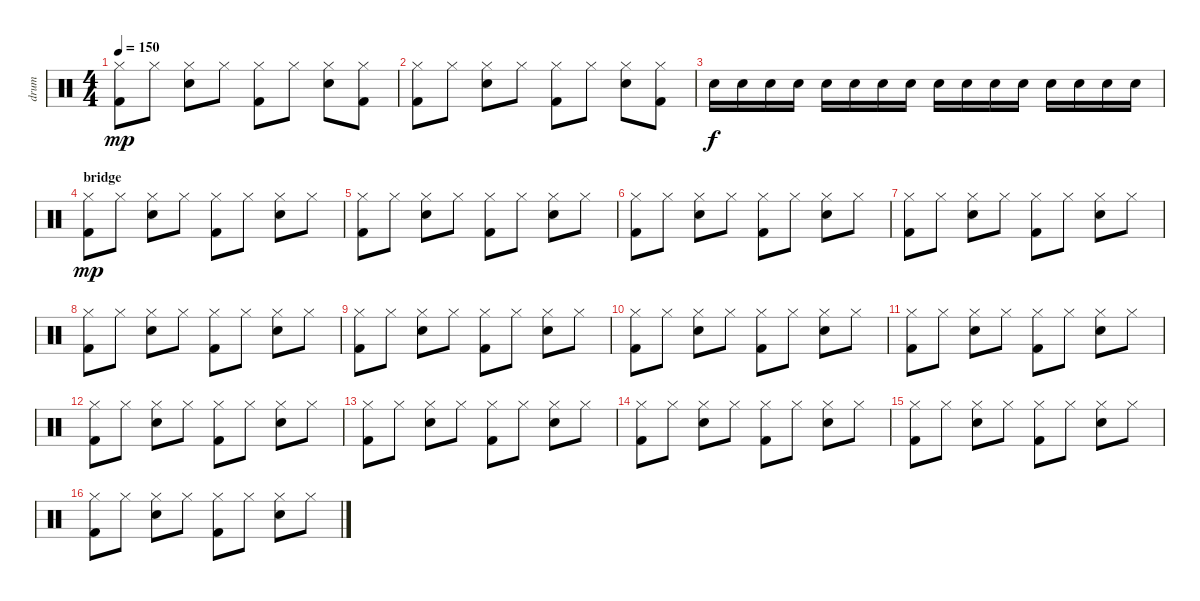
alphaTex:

\track ("drum" "drum") {instrument percussion}
\staff {score}
\articulation defaults
\ts (4 4)
\tempo 150
\clef neutral
\ks c
("Hi-Hat (closed)" "Kick (hit) 2").8{dy mp} "Hi-Hat (closed)".8 ("Hi-Hat (closed)" "Electric Snare (hit)").8 "Hi-Hat (closed)".8 ("Hi-Hat (closed)" "Kick (hit) 2").8 "Hi-Hat (closed)".8 ("Hi-Hat (closed)" "Electric Snare (hit)").8 ("Hi-Hat (closed)" "Kick (hit) 2").8 |
("Hi-Hat (closed)" "Kick (hit) 2").8 "Hi-Hat (closed)".8 ("Hi-Hat (closed)" "Electric Snare (hit)").8 "Hi-Hat (closed)".8 ("Hi-Hat (closed)" "Kick (hit) 2").8 "Hi-Hat (closed)".8 ("Hi-Hat (closed)" "Electric Snare (hit)").8 ("Hi-Hat (closed)" "Kick (hit) 2").8 |
"Electric Snare (hit)".16{dy f} "Electric Snare (hit)".16 "Electric Snare (hit)".16 "Electric Snare (hit)".16 "Electric Snare (hit)".16 "Electric Snare (hit)".16 "Electric Snare (hit)".16 "Electric Snare (hit)".16 "Electric Snare (hit)".16 "Electric Snare (hit)".16 "Electric Snare (hit)".16 "Electric Snare (hit)".16 "Electric Snare (hit)".16 "Electric Snare (hit)".16 "Electric Snare (hit)".16 "Electric Snare (hit)".16 |
\section ("" "bridge")
("Hi-Hat (closed)" "Kick (hit) 2").8{dy mp} "Hi-Hat (closed)".8 ("Hi-Hat (closed)" "Electric Snare (hit)").8 "Hi-Hat (closed)".8 ("Hi-Hat (closed)" "Kick (hit) 2").8 "Hi-Hat (closed)".8 ("Hi-Hat (closed)" "Electric Snare (hit)").8 "Hi-Hat (closed)".8 |
("Hi-Hat (closed)" "Kick (hit) 2").8 "Hi-Hat (closed)".8 ("Hi-Hat (closed)" "Electric Snare (hit)").8 "Hi-Hat (closed)".8 ("Hi-Hat (closed)" "Kick (hit) 2").8 "Hi-Hat (closed)".8 ("Hi-Hat (closed)" "Electric Snare (hit)").8 "Hi-Hat (closed)".8 |
("Hi-Hat (closed)" "Kick (hit) 2").8 "Hi-Hat (closed)".8 ("Hi-Hat (closed)" "Electric Snare (hit)").8 "Hi-Hat (closed)".8 ("Hi-Hat (closed)" "Kick (hit) 2").8 "Hi-Hat (closed)".8 ("Hi-Hat (closed)" "Electric Snare (hit)").8 "Hi-Hat (closed)".8 |
("Hi-Hat (closed)" "Kick (hit) 2").8 "Hi-Hat (closed)".8 ("Hi-Hat (closed)" "Electric Snare (hit)").8 "Hi-Hat (closed)".8 ("Hi-Hat (closed)" "Kick (hit) 2").8 "Hi-Hat (closed)".8 ("Hi-Hat (closed)" "Electric Snare (hit)").8 "Hi-Hat (closed)".8 |
("Hi-Hat (closed)" "Kick (hit) 2").8 "Hi-Hat (closed)".8 ("Hi-Hat (closed)" "Electric Snare (hit)").8 "Hi-Hat (closed)".8 ("Hi-Hat (closed)" "Kick (hit) 2").8 "Hi-Hat (closed)".8 ("Hi-Hat (closed)" "Electric Snare (hit)").8 "Hi-Hat (closed)".8 |
("Hi-Hat (closed)" "Kick (hit) 2").8 "Hi-Hat (closed)".8 ("Hi-Hat (closed)" "Electric Snare (hit)").8 "Hi-Hat (closed)".8 ("Hi-Hat (closed)" "Kick (hit) 2").8 "Hi-Hat (closed)".8 ("Hi-Hat (closed)" "Electric Snare (hit)").8 "Hi-Hat (closed)".8 |
("Hi-Hat (closed)" "Kick (hit) 2").8 "Hi-Hat (closed)".8 ("Hi-Hat (closed)" "Electric Snare (hit)").8 "Hi-Hat (closed)".8 ("Hi-Hat (closed)" "Kick (hit) 2").8 "Hi-Hat (closed)".8 ("Hi-Hat (closed)" "Electric Snare (hit)").8 "Hi-Hat (closed)".8 |
("Hi-Hat (closed)" "Kick (hit) 2").8 "Hi-Hat (closed)".8 ("Hi-Hat (closed)" "Electric Snare (hit)").8 "Hi-Hat (closed)".8 ("Hi-Hat (closed)" "Kick (hit) 2").8 "Hi-Hat (closed)".8 ("Hi-Hat (closed)" "Electric Snare (hit)").8 "Hi-Hat (closed)".8 |
("Hi-Hat (closed)" "Kick (hit) 2").8 "Hi-Hat (closed)".8 ("Hi-Hat (closed)" "Electric Snare (hit)").8 "Hi-Hat (closed)".8 ("Hi-Hat (closed)" "Kick (hit) 2").8 "Hi-Hat (closed)".8 ("Hi-Hat (closed)" "Electric Snare (hit)").8 "Hi-Hat (closed)".8 |
("Hi-Hat (closed)" "Kick (hit) 2").8 "Hi-Hat (closed)".8 ("Hi-Hat (closed)" "Electric Snare (hit)").8 "Hi-Hat (closed)".8 ("Hi-Hat (closed)" "Kick (hit) 2").8 "Hi-Hat (closed)".8 ("Hi-Hat (closed)" "Electric Snare (hit)").8 "Hi-Hat (closed)".8 |
("Hi-Hat (closed)" "Kick (hit) 2").8 "Hi-Hat (closed)".8 ("Hi-Hat (closed)" "Electric Snare (hit)").8 "Hi-Hat (closed)".8 ("Hi-Hat (closed)" "Kick (hit) 2").8 "Hi-Hat (closed)".8 ("Hi-Hat (closed)" "Electric Snare (hit)").8 "Hi-Hat (closed)".8 |
("Hi-Hat (closed)" "Kick (hit) 2").8 "Hi-Hat (closed)".8 ("Hi-Hat (closed)" "Electric Snare (hit)").8 "Hi-Hat (closed)".8 ("Hi-Hat (closed)" "Kick (hit) 2").8 "Hi-Hat (closed)".8 ("Hi-Hat (closed)" "Electric Snare (hit)").8 "Hi-Hat (closed)".8 |
("Hi-Hat (closed)" "Kick (hit) 2").8 "Hi-Hat (closed)".8 ("Hi-Hat (closed)" "Electric Snare (hit)").8 "Hi-Hat (closed)".8 ("Hi-Hat (closed)" "Kick (hit) 2").8 "Hi-Hat (closed)".8 ("Hi-Hat (closed)" "Electric Snare (hit)").8 "Hi-Hat (closed)".8
